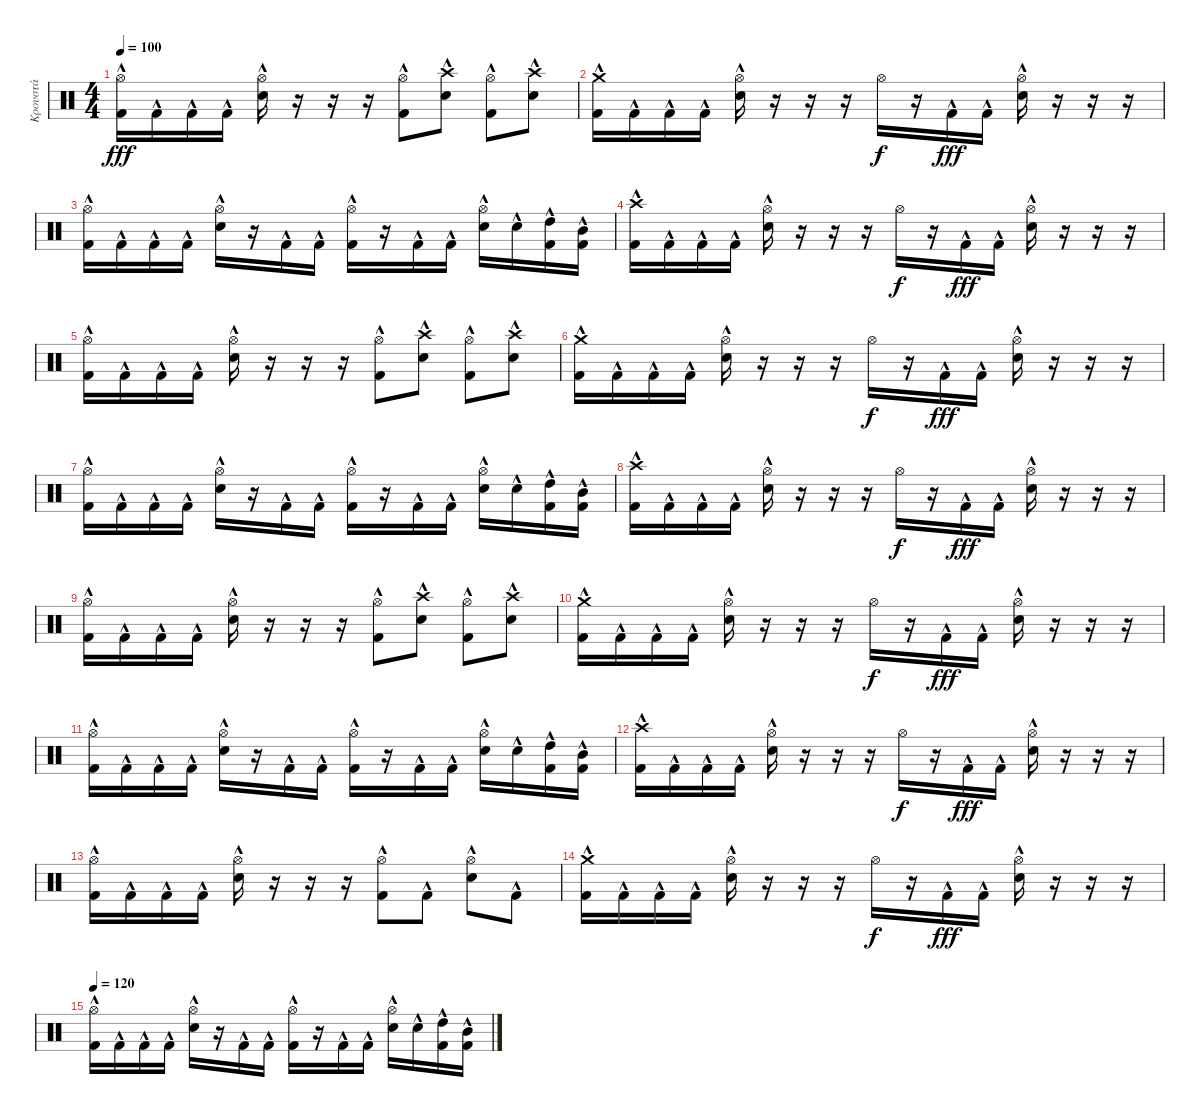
\track ("Κρουστά" "Κρουστά") {instrument percussion}
\staff {score}
\articulation defaults
\ts (4 4)
\tempo 100
\clef neutral
\ks c
("Kick (hit) 2"{hac} "Hi-Hat (open)").16{dy fff} "Kick (hit) 2"{hac}.16 "Kick (hit) 2"{hac}.16 "Kick (hit) 2"{hac}.16 ("Electric Snare (hit)"{hac} "Hi-Hat (open)").16 r.16 r.16 r.16 ("Hi-Hat (open)" "Kick (hit) 2"{hac}).8 ("Crash high (hit)" "Electric Snare (hit)"{hac}).8 ("Hi-Hat (open)" "Kick (hit) 2"{hac}).8 ("Crash high (hit)" "Electric Snare (hit)"{hac}).8 |
("Kick (hit) 2"{hac} "Crash medium (hit)").16 "Kick (hit) 2"{hac}.16 "Kick (hit) 2"{hac}.16 "Kick (hit) 2"{hac}.16 ("Electric Snare (hit)"{hac} "Hi-Hat (open)").16 r.16 r.16 r.16 "Hi-Hat (open)".16{dy f} r.16 "Kick (hit) 2"{hac}.16{dy fff} "Kick (hit) 2"{hac}.16 ("Electric Snare (hit)"{hac} "Hi-Hat (open)").16 r.16 r.16 r.16 |
("Kick (hit) 2"{hac} "Hi-Hat (open)").16 "Kick (hit) 2"{hac}.16 "Kick (hit) 2"{hac}.16 "Kick (hit) 2"{hac}.16 ("Electric Snare (hit)"{hac} "Hi-Hat (open)").16 r.16 "Kick (hit) 2"{hac}.16 "Kick (hit) 2"{hac}.16 ("Kick (hit) 2"{hac} "Hi-Hat (open)").16 r.16 "Kick (hit) 2"{hac}.16 "Kick (hit) 2"{hac}.16 ("Electric Snare (hit)"{hac} "Hi-Hat (open)").16 "Electric Snare (hit)"{hac}.16 ("High Tom (hit)" "Kick (hit) 2"{hac}).16 ("Mid Tom (hit)" "Kick (hit) 2"{hac}).16 |
("Kick (hit) 2"{hac} "Crash high (hit)").16 "Kick (hit) 2"{hac}.16 "Kick (hit) 2"{hac}.16 "Kick (hit) 2"{hac}.16 ("Electric Snare (hit)"{hac} "Hi-Hat (open)").16 r.16 r.16 r.16 "Hi-Hat (open)".16{dy f} r.16 "Kick (hit) 2"{hac}.16{dy fff} "Kick (hit) 2"{hac}.16 ("Electric Snare (hit)"{hac} "Hi-Hat (open)").16 r.16 r.16 r.16 |
("Kick (hit) 2"{hac} "Hi-Hat (open)").16 "Kick (hit) 2"{hac}.16 "Kick (hit) 2"{hac}.16 "Kick (hit) 2"{hac}.16 ("Electric Snare (hit)"{hac} "Hi-Hat (open)").16 r.16 r.16 r.16 ("Hi-Hat (open)" "Kick (hit) 2"{hac}).8 ("Crash high (hit)" "Electric Snare (hit)"{hac}).8 ("Hi-Hat (open)" "Kick (hit) 2"{hac}).8 ("Crash high (hit)" "Electric Snare (hit)"{hac}).8 |
("Kick (hit) 2"{hac} "Crash medium (hit)").16 "Kick (hit) 2"{hac}.16 "Kick (hit) 2"{hac}.16 "Kick (hit) 2"{hac}.16 ("Electric Snare (hit)"{hac} "Hi-Hat (open)").16 r.16 r.16 r.16 "Hi-Hat (open)".16{dy f} r.16 "Kick (hit) 2"{hac}.16{dy fff} "Kick (hit) 2"{hac}.16 ("Electric Snare (hit)"{hac} "Hi-Hat (open)").16 r.16 r.16 r.16 |
("Kick (hit) 2"{hac} "Hi-Hat (open)").16 "Kick (hit) 2"{hac}.16 "Kick (hit) 2"{hac}.16 "Kick (hit) 2"{hac}.16 ("Electric Snare (hit)"{hac} "Hi-Hat (open)").16 r.16 "Kick (hit) 2"{hac}.16 "Kick (hit) 2"{hac}.16 ("Kick (hit) 2"{hac} "Hi-Hat (open)").16 r.16 "Kick (hit) 2"{hac}.16 "Kick (hit) 2"{hac}.16 ("Electric Snare (hit)"{hac} "Hi-Hat (open)").16 "Electric Snare (hit)"{hac}.16 ("High Tom (hit)" "Kick (hit) 2"{hac}).16 ("Mid Tom (hit)" "Kick (hit) 2"{hac}).16 |
("Kick (hit) 2"{hac} "Crash high (hit)").16 "Kick (hit) 2"{hac}.16 "Kick (hit) 2"{hac}.16 "Kick (hit) 2"{hac}.16 ("Electric Snare (hit)"{hac} "Hi-Hat (open)").16 r.16 r.16 r.16 "Hi-Hat (open)".16{dy f} r.16 "Kick (hit) 2"{hac}.16{dy fff} "Kick (hit) 2"{hac}.16 ("Electric Snare (hit)"{hac} "Hi-Hat (open)").16 r.16 r.16 r.16 |
("Kick (hit) 2"{hac} "Hi-Hat (open)").16 "Kick (hit) 2"{hac}.16 "Kick (hit) 2"{hac}.16 "Kick (hit) 2"{hac}.16 ("Electric Snare (hit)"{hac} "Hi-Hat (open)").16 r.16 r.16 r.16 ("Hi-Hat (open)" "Kick (hit) 2"{hac}).8 ("Crash high (hit)" "Electric Snare (hit)"{hac}).8 ("Hi-Hat (open)" "Kick (hit) 2"{hac}).8 ("Crash high (hit)" "Electric Snare (hit)"{hac}).8 |
("Kick (hit) 2"{hac} "Crash medium (hit)").16 "Kick (hit) 2"{hac}.16 "Kick (hit) 2"{hac}.16 "Kick (hit) 2"{hac}.16 ("Electric Snare (hit)"{hac} "Hi-Hat (open)").16 r.16 r.16 r.16 "Hi-Hat (open)".16{dy f} r.16 "Kick (hit) 2"{hac}.16{dy fff} "Kick (hit) 2"{hac}.16 ("Electric Snare (hit)"{hac} "Hi-Hat (open)").16 r.16 r.16 r.16 |
("Kick (hit) 2"{hac} "Hi-Hat (open)").16 "Kick (hit) 2"{hac}.16 "Kick (hit) 2"{hac}.16 "Kick (hit) 2"{hac}.16 ("Electric Snare (hit)"{hac} "Hi-Hat (open)").16 r.16 "Kick (hit) 2"{hac}.16 "Kick (hit) 2"{hac}.16 ("Kick (hit) 2"{hac} "Hi-Hat (open)").16 r.16 "Kick (hit) 2"{hac}.16 "Kick (hit) 2"{hac}.16 ("Electric Snare (hit)"{hac} "Hi-Hat (open)").16 "Electric Snare (hit)"{hac}.16 ("High Tom (hit)" "Kick (hit) 2"{hac}).16 ("Mid Tom (hit)" "Kick (hit) 2"{hac}).16 |
("Kick (hit) 2"{hac} "Crash high (hit)").16 "Kick (hit) 2"{hac}.16 "Kick (hit) 2"{hac}.16 "Kick (hit) 2"{hac}.16 ("Electric Snare (hit)"{hac} "Hi-Hat (open)").16 r.16 r.16 r.16 "Hi-Hat (open)".16{dy f} r.16 "Kick (hit) 2"{hac}.16{dy fff} "Kick (hit) 2"{hac}.16 ("Electric Snare (hit)"{hac} "Hi-Hat (open)").16 r.16 r.16 r.16 |
("Kick (hit) 2"{hac} "Hi-Hat (open)").16 "Kick (hit) 2"{hac}.16 "Kick (hit) 2"{hac}.16 "Kick (hit) 2"{hac}.16 ("Electric Snare (hit)"{hac} "Hi-Hat (open)").16 r.16 r.16 r.16 ("Hi-Hat (open)" "Kick (hit) 2"{hac}).8 "Kick (hit) 2"{hac}.8 ("Hi-Hat (open)" "Electric Snare (hit)"{hac}).8 "Kick (hit) 2"{hac}.8 |
("Kick (hit) 2"{hac} "Crash medium (hit)").16 "Kick (hit) 2"{hac}.16 "Kick (hit) 2"{hac}.16 "Kick (hit) 2"{hac}.16 ("Electric Snare (hit)"{hac} "Hi-Hat (open)").16 r.16 r.16 r.16 "Hi-Hat (open)".16{dy f} r.16 "Kick (hit) 2"{hac}.16{dy fff} "Kick (hit) 2"{hac}.16 ("Electric Snare (hit)"{hac} "Hi-Hat (open)").16 r.16 r.16 r.16 |
\tempo 120
("Kick (hit) 2"{hac} "Hi-Hat (open)").16 "Kick (hit) 2"{hac}.16 "Kick (hit) 2"{hac}.16 "Kick (hit) 2"{hac}.16 ("Electric Snare (hit)"{hac} "Hi-Hat (open)").16 r.16 "Kick (hit) 2"{hac}.16 "Kick (hit) 2"{hac}.16 ("Kick (hit) 2"{hac} "Hi-Hat (open)").16 r.16 "Kick (hit) 2"{hac}.16 "Kick (hit) 2"{hac}.16 ("Electric Snare (hit)"{hac} "Hi-Hat (open)").16 "Electric Snare (hit)"{hac}.16 ("High Tom (hit)" "Kick (hit) 2"{hac}).16 ("Mid Tom (hit)" "Kick (hit) 2"{hac}).16
